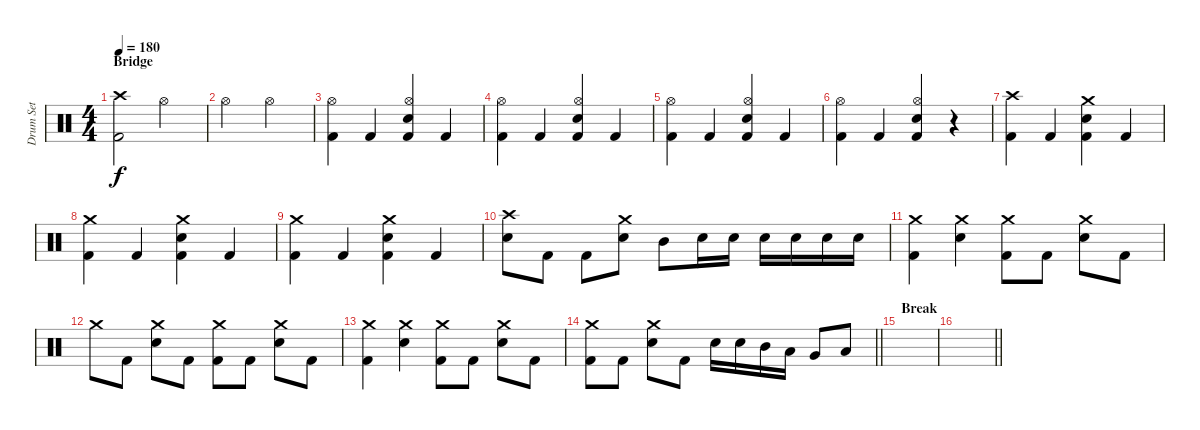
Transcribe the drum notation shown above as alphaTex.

\track ("Drum Set" "Drum Set") {instrument percussion}
\staff {score}
\articulation defaults
\ts (4 4)
\section ("" "Bridge")
\tempo 180
\clef neutral
\ks c
("Crash high (hit)" "Kick (hit) 2").2{dy f} "Hi-Hat (open)".2 |
"Hi-Hat (open)".2 "Hi-Hat (open)".2 |
("Hi-Hat (open)" "Kick (hit) 2").4 "Kick (hit) 2".4 ("Hi-Hat (open)" "Electric Snare (hit)" "Kick (hit) 2").4 "Kick (hit) 2".4 |
("Hi-Hat (open)" "Kick (hit) 2").4 "Kick (hit) 2".4 ("Hi-Hat (open)" "Electric Snare (hit)" "Kick (hit) 2").4 "Kick (hit) 2".4 |
("Hi-Hat (open)" "Kick (hit) 2").4 "Kick (hit) 2".4 ("Hi-Hat (open)" "Electric Snare (hit)" "Kick (hit) 2").4 "Kick (hit) 2".4 |
("Hi-Hat (open)" "Kick (hit) 2").4 "Kick (hit) 2".4 ("Hi-Hat (open)" "Electric Snare (hit)" "Kick (hit) 2").4 r.4 |
("Crash high (hit)" "Kick (hit) 2").4 "Kick (hit) 2".4 ("Crash medium (hit)" "Electric Snare (hit)" "Kick (hit) 2").4 "Kick (hit) 2".4 |
("Crash medium (hit)" "Kick (hit) 2").4 "Kick (hit) 2".4 ("Crash medium (hit)" "Electric Snare (hit)" "Kick (hit) 2").4 "Kick (hit) 2".4 |
("Crash medium (hit)" "Kick (hit) 2").4 "Kick (hit) 2".4 ("Crash medium (hit)" "Electric Snare (hit)" "Kick (hit) 2").4 "Kick (hit) 2".4 |
("Crash high (hit)" "Electric Snare (hit)").8 "Kick (hit) 2".8 "Kick (hit) 2".8 ("Crash medium (hit)" "Electric Snare (hit)").8 "Mid Tom (hit)".8 "Electric Snare (hit)".16 "Electric Snare (hit)".16 "Electric Snare (hit)".16 "Electric Snare (hit)".16 "Electric Snare (hit)".16 "Electric Snare (hit)".16 |
("Crash medium (hit)" "Kick (hit) 2").4 ("Crash medium (hit)" "Electric Snare (hit)").4 ("Crash medium (hit)" "Kick (hit) 2").8 "Kick (hit) 2".8 ("Crash medium (hit)" "Electric Snare (hit)").8 "Kick (hit) 2".8 |
"Crash medium (hit)".8 "Kick (hit) 2".8 ("Crash medium (hit)" "Electric Snare (hit)").8 "Kick (hit) 2".8 ("Crash medium (hit)" "Kick (hit) 2").8 "Kick (hit) 2".8 ("Crash medium (hit)" "Electric Snare (hit)").8 "Kick (hit) 2".8 |
("Crash medium (hit)" "Kick (hit) 2").4 ("Crash medium (hit)" "Electric Snare (hit)").4 ("Crash medium (hit)" "Kick (hit) 2").8 "Kick (hit) 2".8 ("Crash medium (hit)" "Electric Snare (hit)").8 "Kick (hit) 2".8 |
\barLineRight lightlight
("Crash medium (hit)" "Kick (hit) 2").8 "Kick (hit) 2".8 ("Crash medium (hit)" "Electric Snare (hit)").8 "Kick (hit) 2".8 "Electric Snare (hit)".16 "Electric Snare (hit)".16 "Mid Tom (hit)".16 "Low Tom (hit)".16 "Very Low Tom (hit)".8 "Low Floor Tom (hit)".8 |
\section ("" "Break")
|
\barLineRight lightlight
